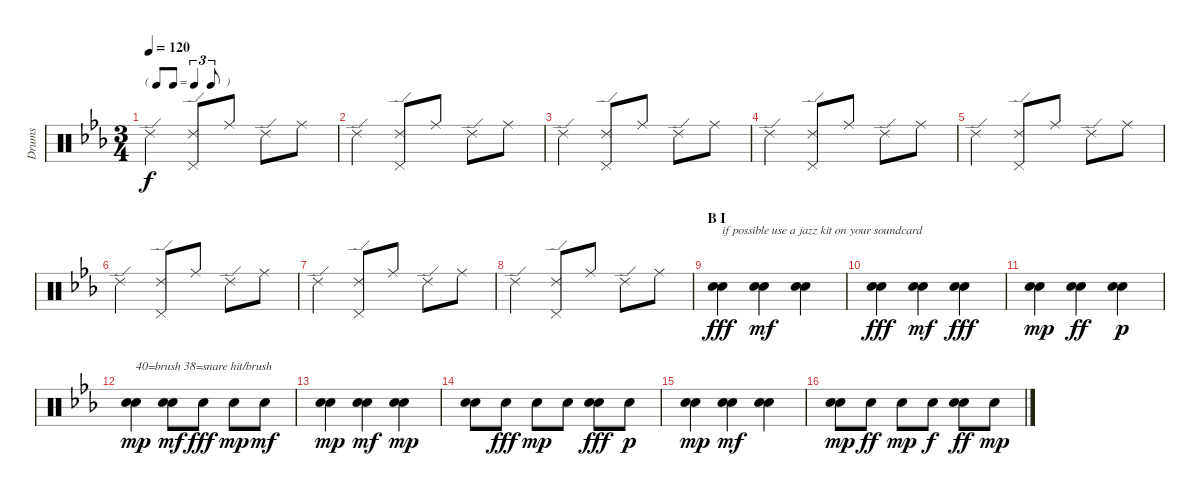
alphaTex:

\track ("Drums" "Drums") {instrument percussion}
\staff {score}
\articulation defaults
\ts (3 4)
\tf triplet8th
\tempo 120
\clef neutral
\ks cminor "Ride (edge) 2".4{dy f}
("Ride (edge) 2" "Pedal Hi-Hat (hit)").8 "Ride (middle)".8 "Ride (edge) 2".8 "Ride (middle)".8 |
"Ride (edge) 2".4 ("Ride (edge) 2" "Pedal Hi-Hat (hit)").8 "Ride (middle)".8 "Ride (edge) 2".8 "Ride (middle)".8 |
"Ride (edge) 2".4 ("Ride (edge) 2" "Pedal Hi-Hat (hit)").8 "Ride (middle)".8 "Ride (edge) 2".8 "Ride (middle)".8 |
"Ride (edge) 2".4 ("Ride (edge) 2" "Pedal Hi-Hat (hit)").8 "Ride (middle)".8 "Ride (edge) 2".8 "Ride (middle)".8 |
"Ride (edge) 2".4 ("Ride (edge) 2" "Pedal Hi-Hat (hit)").8 "Ride (middle)".8 "Ride (edge) 2".8 "Ride (middle)".8 |
"Ride (edge) 2".4 ("Ride (edge) 2" "Pedal Hi-Hat (hit)").8 "Ride (middle)".8 "Ride (edge) 2".8 "Ride (middle)".8 |
"Ride (edge) 2".4 ("Ride (edge) 2" "Pedal Hi-Hat (hit)").8 "Ride (middle)".8 "Ride (edge) 2".8 "Ride (middle)".8 |
"Ride (edge) 2".4 ("Ride (edge) 2" "Pedal Hi-Hat (hit)").8 "Ride (middle)".8 "Ride (edge) 2".8 "Ride (middle)".8 |
\section ("" "B I")
("Electric Snare (hit)" "Snare (hit) 2").4{txt "if possible use a jazz kit on your soundcard" dy fff} ("Electric Snare (hit)" "Snare (hit) 2").4{dy mf} ("Electric Snare (hit)" "Snare (hit) 2").4 |
("Electric Snare (hit)" "Snare (hit) 2").4{dy fff} ("Electric Snare (hit)" "Snare (hit) 2").4{dy mf} ("Electric Snare (hit)" "Snare (hit) 2").4{dy fff} |
("Electric Snare (hit)" "Snare (hit) 2").4{dy mp} ("Electric Snare (hit)" "Snare (hit) 2").4{dy ff} ("Electric Snare (hit)" "Snare (hit) 2").4{dy p} |
("Electric Snare (hit)" "Snare (hit) 2").4{txt "40=brush 38=snare hit/brush" dy mp} ("Electric Snare (hit)" "Snare (hit) 2").8{dy mf} "Snare (hit) 2".8{dy fff} "Electric Snare (hit)".8{dy mp} "Snare (hit) 2".8{dy mf} |
("Electric Snare (hit)" "Snare (hit) 2").4{dy mp} ("Electric Snare (hit)" "Snare (hit) 2").4{dy mf} ("Electric Snare (hit)" "Snare (hit) 2").4{dy mp} |
("Electric Snare (hit)" "Snare (hit) 2").8 "Snare (hit) 2".8{dy fff} "Electric Snare (hit)".8{dy mp} "Snare (hit) 2".8 ("Electric Snare (hit)" "Snare (hit) 2").8{dy fff} "Snare (hit) 2".8{dy p} |
("Electric Snare (hit)" "Snare (hit) 2").4{dy mp} ("Electric Snare (hit)" "Snare (hit) 2").4{dy mf} ("Electric Snare (hit)" "Snare (hit) 2").4 |
("Electric Snare (hit)" "Snare (hit) 2").8{dy mp} "Snare (hit) 2".8{dy ff} "Electric Snare (hit)".8{dy mp} "Snare (hit) 2".8{dy f} ("Electric Snare (hit)" "Snare (hit) 2").8{dy ff} "Snare (hit) 2".8{dy mp}
